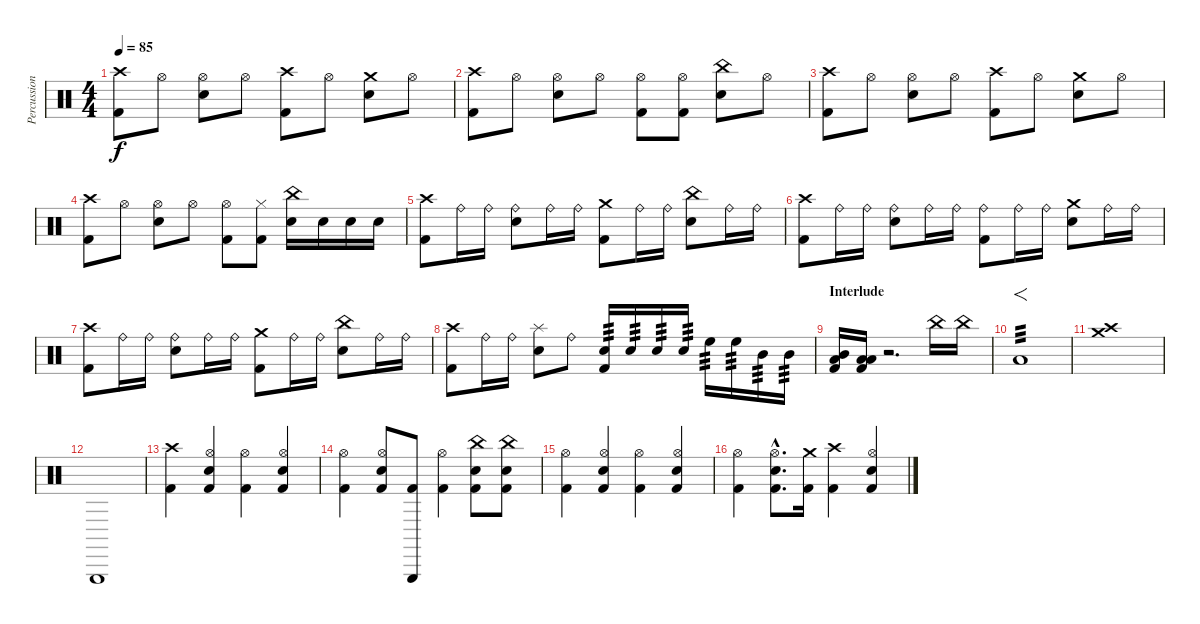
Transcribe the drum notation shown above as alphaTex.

\track ("Percussions" "Percussion") {instrument percussion}
\staff {score}
\articulation defaults
\ts (4 4)
\tempo 85
\clef neutral
\ks c
("Crash high (hit)" "Kick (hit) 2").8{dy f} "Hi-Hat (open)".8 ("Hi-Hat (open)" "Snare (hit) 2").8 "Hi-Hat (open)".8 ("Crash high (hit)" "Kick (hit) 2").8 "Hi-Hat (open)".8 ("Crash medium (hit)" "Snare (hit) 2").8 "Hi-Hat (open)".8 |
("Crash high (hit)" "Kick (hit) 2").8 "Hi-Hat (open)".8 ("Hi-Hat (open)" "Snare (hit) 2").8 "Hi-Hat (open)".8 ("Hi-Hat (open)" "Kick (hit) 2").8 ("Hi-Hat (open)" "Kick (hit) 2").8 ("China (hit)" "Snare (hit) 2").8 "Hi-Hat (open)".8 |
("Crash high (hit)" "Kick (hit) 2").8 "Hi-Hat (open)".8 ("Hi-Hat (open)" "Snare (hit) 2").8 "Hi-Hat (open)".8 ("Crash high (hit)" "Kick (hit) 2").8 "Hi-Hat (open)".8 ("Crash medium (hit)" "Snare (hit) 2").8 "Hi-Hat (open)".8 |
("Crash high (hit)" "Kick (hit) 2").8 "Hi-Hat (open)".8 ("Hi-Hat (open)" "Snare (hit) 2").8 "Hi-Hat (open)".8 ("Hi-Hat (open)" "Kick (hit) 2").8 ("Hi-Hat (closed)" "Kick (hit) 2").8 ("China (hit)" "Snare (hit) 2").16 "Snare (hit) 2".16 "Snare (hit) 2".16 "Snare (hit) 2".16 |
("Crash high (hit)" "Kick (hit) 2").8 "Ride (bell)".16 "Ride (bell)".16 ("Ride (bell)" "Snare (hit) 2").8 "Ride (bell)".16 "Ride (bell)".16 ("Crash medium (hit)" "Kick (hit) 2").8 "Ride (bell)".16 "Ride (bell)".16 ("China (hit)" "Snare (hit) 2").8 "Ride (bell)".16 "Ride (bell)".16 |
("Crash high (hit)" "Kick (hit) 2").8 "Ride (bell)".16 "Ride (bell)".16 ("Ride (bell)" "Snare (hit) 2").8 "Ride (bell)".16 "Ride (bell)".16 ("Ride (bell)" "Kick (hit) 2").8 "Ride (bell)".16 "Ride (bell)".16 ("Crash medium (hit)" "Snare (hit) 2").8 "Ride (bell)".16 "Ride (bell)".16 |
("Crash high (hit)" "Kick (hit) 2").8 "Ride (bell)".16 "Ride (bell)".16 ("Ride (bell)" "Snare (hit) 2").8 "Ride (bell)".16 "Ride (bell)".16 ("Crash medium (hit)" "Kick (hit) 2").8 "Ride (bell)".16 "Ride (bell)".16 ("China (hit)" "Snare (hit) 2").8 "Ride (bell)".16 "Ride (bell)".16 |
("Crash high (hit)" "Kick (hit) 2").8 "Ride (bell)".16 "Ride (bell)".16 ("Splash (hit)" "Snare (hit) 2").8 "Ride (bell)".8 ("Snare (hit) 2" "Kick (hit) 2").16{tp 3} "Snare (hit) 2".16{tp 3} "Snare (hit) 2".16{tp 3} "Snare (hit) 2".16{tp 3} "High Floor Tom (hit)".16{tp 3} "High Floor Tom (hit)".16{tp 3} "Mid Tom (hit)".16{tp 3} "Mid Tom (hit)".16{tp 3} |
\section ("" "Interlude")
("Mid Tom (hit)" "Low Tom (hit)" "Kick (hit) 2").16 ("Low Tom (hit)" "Low Floor Tom (hit)" "Kick (hit) 2").16 r.2{d} "China (hit)".16 "China (hit)".16 |
"Low Floor Tom (hit)".1{f tp 3} |
("Crash high (hit)" "Crash medium (hit)").1 |
"Triangle (hit)".1 |
("Crash high (hit)" "Kick (hit) 2").4 ("Hi-Hat (open)" "Snare (hit) 2" "Kick (hit) 2").4 ("Hi-Hat (open)" "Kick (hit) 2").4 ("Hi-Hat (open)" "Snare (hit) 2" "Kick (hit) 2").4 |
("Hi-Hat (open)" "Kick (hit) 2").4 ("Hi-Hat (open)" "Snare (hit) 2" "Kick (hit) 2").8 ("Triangle (hit)" "Kick (hit) 2").8 ("Hi-Hat (open)" "Kick (hit) 2").4 ("China (hit)" "Snare (hit) 2" "Kick (hit) 2").8 ("China (hit)" "Snare (hit) 2" "Kick (hit) 2").8 |
("Hi-Hat (open)" "Kick (hit) 2").4 ("Hi-Hat (open)" "Snare (hit) 2" "Kick (hit) 2").4 ("Hi-Hat (open)" "Kick (hit) 2").4 ("Hi-Hat (open)" "Snare (hit) 2" "Kick (hit) 2").4 |
("Hi-Hat (open)" "Kick (hit) 2").4 ("Hi-Hat (open)"{hac} "Snare (hit) 2"{hac} "Kick (hit) 2"{hac}).8{d} ("Crash medium (hit)" "Kick (hit) 2").16 ("Crash high (hit)" "Kick (hit) 2").4 ("Hi-Hat (open)" "Snare (hit) 2" "Kick (hit) 2").4
